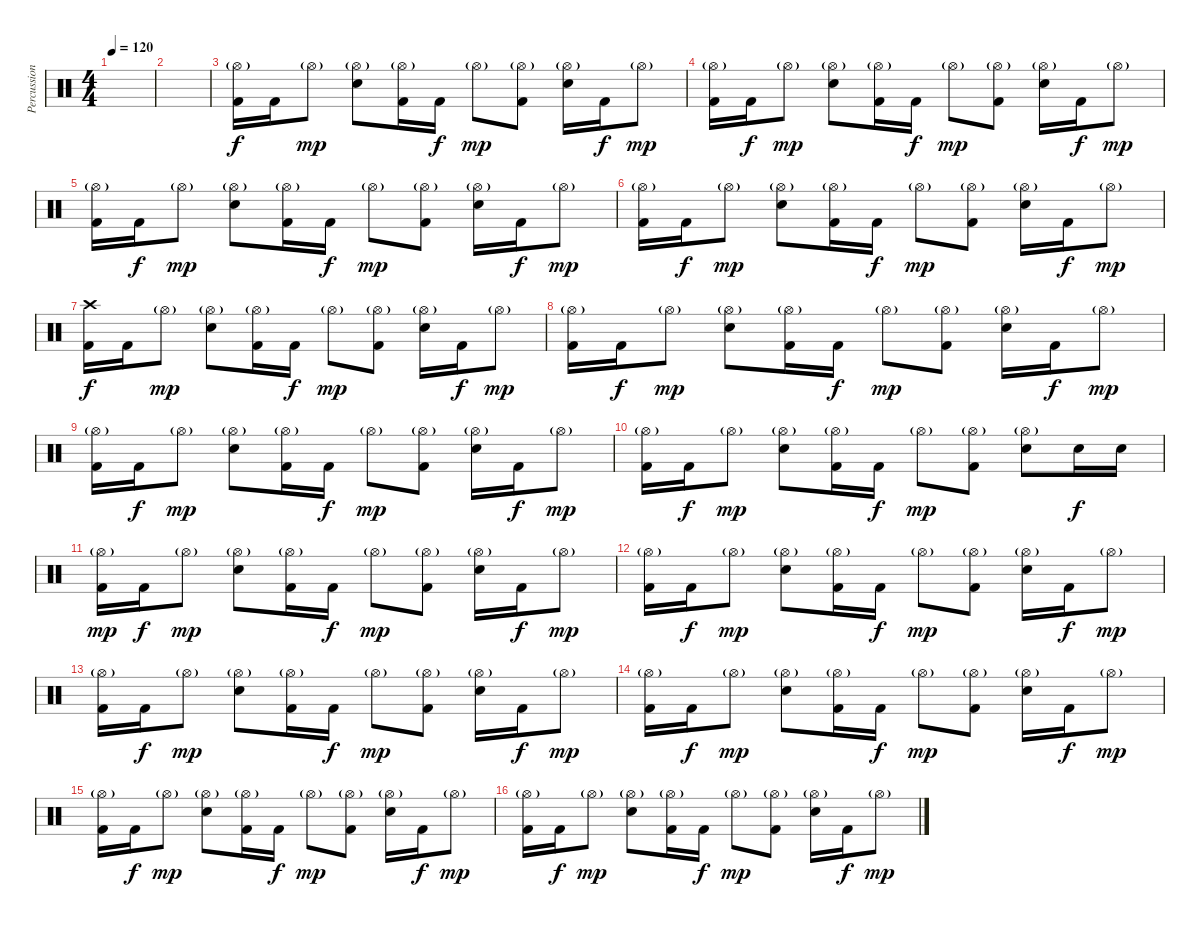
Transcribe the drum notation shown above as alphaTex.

\track ("Percussion" "Percussion") {instrument percussion}
\staff {score}
\articulation defaults
\ts (4 4)
\tempo 120
\clef neutral
\ks c
|
|
("Hi-Hat (open)"{g} "Kick (hit) 2").16 "Kick (hit) 2".16{dy f} "Hi-Hat (open)"{g}.8{dy mp} ("Hi-Hat (open)"{g} "Snare (hit) 2").8 ("Hi-Hat (open)"{g} "Kick (hit) 2").16 "Kick (hit) 2".16{dy f} "Hi-Hat (open)"{g}.8{dy mp} ("Hi-Hat (open)"{g} "Kick (hit) 2").8 ("Hi-Hat (open)"{g} "Snare (hit) 2").16 "Kick (hit) 2".16{dy f} "Hi-Hat (open)"{g}.8{dy mp} |
("Hi-Hat (open)"{g} "Kick (hit) 2").16 "Kick (hit) 2".16{dy f} "Hi-Hat (open)"{g}.8{dy mp} ("Hi-Hat (open)"{g} "Snare (hit) 2").8 ("Hi-Hat (open)"{g} "Kick (hit) 2").16 "Kick (hit) 2".16{dy f} "Hi-Hat (open)"{g}.8{dy mp} ("Hi-Hat (open)"{g} "Kick (hit) 2").8 ("Hi-Hat (open)"{g} "Snare (hit) 2").16 "Kick (hit) 2".16{dy f} "Hi-Hat (open)"{g}.8{dy mp} |
("Hi-Hat (open)"{g} "Kick (hit) 2").16 "Kick (hit) 2".16{dy f} "Hi-Hat (open)"{g}.8{dy mp} ("Hi-Hat (open)"{g} "Snare (hit) 2").8 ("Hi-Hat (open)"{g} "Kick (hit) 2").16 "Kick (hit) 2".16{dy f} "Hi-Hat (open)"{g}.8{dy mp} ("Hi-Hat (open)"{g} "Kick (hit) 2").8 ("Hi-Hat (open)"{g} "Snare (hit) 2").16 "Kick (hit) 2".16{dy f} "Hi-Hat (open)"{g}.8{dy mp} |
("Hi-Hat (open)"{g} "Kick (hit) 2").16 "Kick (hit) 2".16{dy f} "Hi-Hat (open)"{g}.8{dy mp} ("Hi-Hat (open)"{g} "Snare (hit) 2").8 ("Hi-Hat (open)"{g} "Kick (hit) 2").16 "Kick (hit) 2".16{dy f} "Hi-Hat (open)"{g}.8{dy mp} ("Hi-Hat (open)"{g} "Kick (hit) 2").8 ("Hi-Hat (open)"{g} "Snare (hit) 2").16 "Kick (hit) 2".16{dy f} "Hi-Hat (open)"{g}.8{dy mp} |
("Crash high (hit)" "Kick (hit) 2").16{dy f} "Kick (hit) 2".16 "Hi-Hat (open)"{g}.8{dy mp} ("Hi-Hat (open)"{g} "Snare (hit) 2").8 ("Hi-Hat (open)"{g} "Kick (hit) 2").16 "Kick (hit) 2".16{dy f} "Hi-Hat (open)"{g}.8{dy mp} ("Hi-Hat (open)"{g} "Kick (hit) 2").8 ("Hi-Hat (open)"{g} "Snare (hit) 2").16 "Kick (hit) 2".16{dy f} "Hi-Hat (open)"{g}.8{dy mp} |
("Hi-Hat (open)"{g} "Kick (hit) 2").16 "Kick (hit) 2".16{dy f} "Hi-Hat (open)"{g}.8{dy mp} ("Hi-Hat (open)"{g} "Snare (hit) 2").8 ("Hi-Hat (open)"{g} "Kick (hit) 2").16 "Kick (hit) 2".16{dy f} "Hi-Hat (open)"{g}.8{dy mp} ("Hi-Hat (open)"{g} "Kick (hit) 2").8 ("Hi-Hat (open)"{g} "Snare (hit) 2").16 "Kick (hit) 2".16{dy f} "Hi-Hat (open)"{g}.8{dy mp} |
("Hi-Hat (open)"{g} "Kick (hit) 2").16 "Kick (hit) 2".16{dy f} "Hi-Hat (open)"{g}.8{dy mp} ("Hi-Hat (open)"{g} "Snare (hit) 2").8 ("Hi-Hat (open)"{g} "Kick (hit) 2").16 "Kick (hit) 2".16{dy f} "Hi-Hat (open)"{g}.8{dy mp} ("Hi-Hat (open)"{g} "Kick (hit) 2").8 ("Hi-Hat (open)"{g} "Snare (hit) 2").16 "Kick (hit) 2".16{dy f} "Hi-Hat (open)"{g}.8{dy mp} |
("Hi-Hat (open)"{g} "Kick (hit) 2").16 "Kick (hit) 2".16{dy f} "Hi-Hat (open)"{g}.8{dy mp} ("Hi-Hat (open)"{g} "Snare (hit) 2").8 ("Hi-Hat (open)"{g} "Kick (hit) 2").16 "Kick (hit) 2".16{dy f} "Hi-Hat (open)"{g}.8{dy mp} ("Hi-Hat (open)"{g} "Kick (hit) 2").8 ("Hi-Hat (open)"{g} "Snare (hit) 2").8 "Snare (hit) 2".16{dy f} "Snare (hit) 2".16 |
("Hi-Hat (open)"{g} "Kick (hit) 2").16{dy mp} "Kick (hit) 2".16{dy f} "Hi-Hat (open)"{g}.8{dy mp} ("Hi-Hat (open)"{g} "Snare (hit) 2").8 ("Hi-Hat (open)"{g} "Kick (hit) 2").16 "Kick (hit) 2".16{dy f} "Hi-Hat (open)"{g}.8{dy mp} ("Hi-Hat (open)"{g} "Kick (hit) 2").8 ("Hi-Hat (open)"{g} "Snare (hit) 2").16 "Kick (hit) 2".16{dy f} "Hi-Hat (open)"{g}.8{dy mp} |
("Hi-Hat (open)"{g} "Kick (hit) 2").16 "Kick (hit) 2".16{dy f} "Hi-Hat (open)"{g}.8{dy mp} ("Hi-Hat (open)"{g} "Snare (hit) 2").8 ("Hi-Hat (open)"{g} "Kick (hit) 2").16 "Kick (hit) 2".16{dy f} "Hi-Hat (open)"{g}.8{dy mp} ("Hi-Hat (open)"{g} "Kick (hit) 2").8 ("Hi-Hat (open)"{g} "Snare (hit) 2").16 "Kick (hit) 2".16{dy f} "Hi-Hat (open)"{g}.8{dy mp} |
("Hi-Hat (open)"{g} "Kick (hit) 2").16 "Kick (hit) 2".16{dy f} "Hi-Hat (open)"{g}.8{dy mp} ("Hi-Hat (open)"{g} "Snare (hit) 2").8 ("Hi-Hat (open)"{g} "Kick (hit) 2").16 "Kick (hit) 2".16{dy f} "Hi-Hat (open)"{g}.8{dy mp} ("Hi-Hat (open)"{g} "Kick (hit) 2").8 ("Hi-Hat (open)"{g} "Snare (hit) 2").16 "Kick (hit) 2".16{dy f} "Hi-Hat (open)"{g}.8{dy mp} |
("Hi-Hat (open)"{g} "Kick (hit) 2").16 "Kick (hit) 2".16{dy f} "Hi-Hat (open)"{g}.8{dy mp} ("Hi-Hat (open)"{g} "Snare (hit) 2").8 ("Hi-Hat (open)"{g} "Kick (hit) 2").16 "Kick (hit) 2".16{dy f} "Hi-Hat (open)"{g}.8{dy mp} ("Hi-Hat (open)"{g} "Kick (hit) 2").8 ("Hi-Hat (open)"{g} "Snare (hit) 2").16 "Kick (hit) 2".16{dy f} "Hi-Hat (open)"{g}.8{dy mp} |
("Hi-Hat (open)"{g} "Kick (hit) 2").16 "Kick (hit) 2".16{dy f} "Hi-Hat (open)"{g}.8{dy mp} ("Hi-Hat (open)"{g} "Snare (hit) 2").8 ("Hi-Hat (open)"{g} "Kick (hit) 2").16 "Kick (hit) 2".16{dy f} "Hi-Hat (open)"{g}.8{dy mp} ("Hi-Hat (open)"{g} "Kick (hit) 2").8 ("Hi-Hat (open)"{g} "Snare (hit) 2").16 "Kick (hit) 2".16{dy f} "Hi-Hat (open)"{g}.8{dy mp} |
("Hi-Hat (open)"{g} "Kick (hit) 2").16 "Kick (hit) 2".16{dy f} "Hi-Hat (open)"{g}.8{dy mp} ("Hi-Hat (open)"{g} "Snare (hit) 2").8 ("Hi-Hat (open)"{g} "Kick (hit) 2").16 "Kick (hit) 2".16{dy f} "Hi-Hat (open)"{g}.8{dy mp} ("Hi-Hat (open)"{g} "Kick (hit) 2").8 ("Hi-Hat (open)"{g} "Snare (hit) 2").16 "Kick (hit) 2".16{dy f} "Hi-Hat (open)"{g}.8{dy mp}
